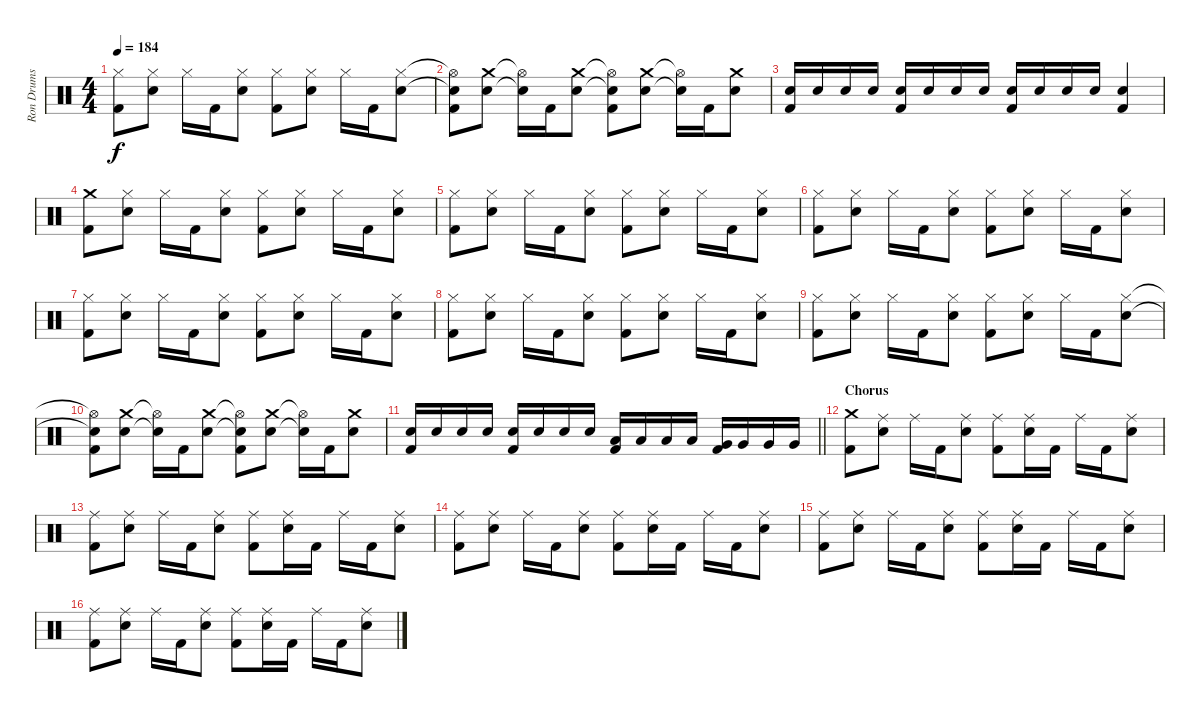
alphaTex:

\track ("Ron Drums and Percussion" "Ron Drums ") {instrument percussion}
\staff {score}
\articulation defaults
\ts (4 4)
\tempo 184
\clef neutral
\ks c
("Hi-Hat (closed)" "Kick (hit) 2").8{dy f} ("Hi-Hat (closed)" "Electric Snare (hit)").8 "Hi-Hat (closed)".16 "Kick (hit) 2".16 ("Hi-Hat (closed)" "Electric Snare (hit)").8 ("Hi-Hat (closed)" "Kick (hit) 2").8 ("Hi-Hat (closed)" "Electric Snare (hit)").8 "Hi-Hat (closed)".16 "Kick (hit) 2".16 ("Hi-Hat (closed)" "Electric Snare (hit)").8 |
("Hi-Hat (open)"{t} "Snare (hit)"{t} "Kick (hit) 2").8 ("Crash medium (hit)" "Electric Snare (hit)").8 ("Hi-Hat (open)"{t} "Snare (hit)"{t}).16 "Kick (hit) 2".16 ("Crash medium (hit)" "Electric Snare (hit)").8 ("Hi-Hat (open)"{t} "Snare (hit)"{t} "Kick (hit) 2").8 ("Crash medium (hit)" "Electric Snare (hit)").8 ("Hi-Hat (open)"{t} "Snare (hit)"{t}).16 "Kick (hit) 2".16 ("Crash medium (hit)" "Electric Snare (hit)").8 |
("Electric Snare (hit)" "Kick (hit) 2").16 "Electric Snare (hit)".16 "Electric Snare (hit)".16 "Electric Snare (hit)".16 ("Electric Snare (hit)" "Kick (hit) 2").16 "Electric Snare (hit)".16 "Electric Snare (hit)".16 "Electric Snare (hit)".16 ("Electric Snare (hit)" "Kick (hit) 2").16 "Electric Snare (hit)".16 "Electric Snare (hit)".16 "Electric Snare (hit)".16 ("Electric Snare (hit)" "Kick (hit) 2").4 |
("Crash medium (hit)" "Kick (hit) 2").8 ("Hi-Hat (closed)" "Electric Snare (hit)").8 "Hi-Hat (closed)".16 "Kick (hit) 2".16 ("Hi-Hat (closed)" "Electric Snare (hit)").8 ("Hi-Hat (closed)" "Kick (hit) 2").8 ("Hi-Hat (closed)" "Electric Snare (hit)").8 "Hi-Hat (closed)".16 "Kick (hit) 2".16 ("Hi-Hat (closed)" "Electric Snare (hit)").8 |
("Hi-Hat (closed)" "Kick (hit) 2").8 ("Hi-Hat (closed)" "Electric Snare (hit)").8 "Hi-Hat (closed)".16 "Kick (hit) 2".16 ("Hi-Hat (closed)" "Electric Snare (hit)").8 ("Hi-Hat (closed)" "Kick (hit) 2").8 ("Hi-Hat (closed)" "Electric Snare (hit)").8 "Hi-Hat (closed)".16 "Kick (hit) 2".16 ("Hi-Hat (closed)" "Electric Snare (hit)").8 |
("Hi-Hat (closed)" "Kick (hit) 2").8 ("Hi-Hat (closed)" "Electric Snare (hit)").8 "Hi-Hat (closed)".16 "Kick (hit) 2".16 ("Hi-Hat (closed)" "Electric Snare (hit)").8 ("Hi-Hat (closed)" "Kick (hit) 2").8 ("Hi-Hat (closed)" "Electric Snare (hit)").8 "Hi-Hat (closed)".16 "Kick (hit) 2".16 ("Hi-Hat (closed)" "Electric Snare (hit)").8 |
("Hi-Hat (closed)" "Kick (hit) 2").8 ("Hi-Hat (closed)" "Electric Snare (hit)").8 "Hi-Hat (closed)".16 "Kick (hit) 2".16 ("Hi-Hat (closed)" "Electric Snare (hit)").8 ("Hi-Hat (closed)" "Kick (hit) 2").8 ("Hi-Hat (closed)" "Electric Snare (hit)").8 "Hi-Hat (closed)".16 "Kick (hit) 2".16 ("Hi-Hat (closed)" "Electric Snare (hit)").8 |
("Hi-Hat (closed)" "Kick (hit) 2").8 ("Hi-Hat (closed)" "Electric Snare (hit)").8 "Hi-Hat (closed)".16 "Kick (hit) 2".16 ("Hi-Hat (closed)" "Electric Snare (hit)").8 ("Hi-Hat (closed)" "Kick (hit) 2").8 ("Hi-Hat (closed)" "Electric Snare (hit)").8 "Hi-Hat (closed)".16 "Kick (hit) 2".16 ("Hi-Hat (closed)" "Electric Snare (hit)").8 |
("Hi-Hat (closed)" "Kick (hit) 2").8 ("Hi-Hat (closed)" "Electric Snare (hit)").8 "Hi-Hat (closed)".16 "Kick (hit) 2".16 ("Hi-Hat (closed)" "Electric Snare (hit)").8 ("Hi-Hat (closed)" "Kick (hit) 2").8 ("Hi-Hat (closed)" "Electric Snare (hit)").8 "Hi-Hat (closed)".16 "Kick (hit) 2".16 ("Hi-Hat (closed)" "Electric Snare (hit)").8 |
("Hi-Hat (open)"{t} "Snare (hit)"{t} "Kick (hit) 2").8 ("Crash medium (hit)" "Electric Snare (hit)").8 ("Hi-Hat (open)"{t} "Snare (hit)"{t}).16 "Kick (hit) 2".16 ("Crash medium (hit)" "Electric Snare (hit)").8 ("Hi-Hat (open)"{t} "Snare (hit)"{t} "Kick (hit) 2").8 ("Crash medium (hit)" "Electric Snare (hit)").8 ("Hi-Hat (open)"{t} "Snare (hit)"{t}).16 "Kick (hit) 2".16 ("Crash medium (hit)" "Electric Snare (hit)").8 |
\barLineRight lightlight
("Electric Snare (hit)" "Kick (hit) 2").16 "Electric Snare (hit)".16 "Electric Snare (hit)".16 "Electric Snare (hit)".16 ("Electric Snare (hit)" "Kick (hit) 2").16 "Electric Snare (hit)".16 "Electric Snare (hit)".16 "Electric Snare (hit)".16 ("Low Tom (hit)" "Kick (hit) 2").16 "Low Tom (hit)".16 "Low Tom (hit)".16 "Low Tom (hit)".16 ("Very Low Tom (hit)" "Kick (hit) 2").16 "Very Low Tom (hit)".16 "Very Low Tom (hit)".16 "Very Low Tom (hit)".16 |
\section ("" "Chorus")
("Crash medium (hit)" "Kick (hit) 2").8 ("Ride (middle)" "Electric Snare (hit)").8 "Ride (middle)".16 "Kick (hit) 2".16 ("Ride (middle)" "Electric Snare (hit)").8 ("Ride (middle)" "Kick (hit) 2").8 ("Ride (middle)" "Electric Snare (hit)").16 "Kick (hit) 2".16 "Ride (middle)".16 "Kick (hit) 2".16 ("Ride (middle)" "Electric Snare (hit)").8 |
("Ride (middle)" "Kick (hit) 2").8 ("Ride (middle)" "Electric Snare (hit)").8 "Ride (middle)".16 "Kick (hit) 2".16 ("Ride (middle)" "Electric Snare (hit)").8 ("Ride (middle)" "Kick (hit) 2").8 ("Ride (middle)" "Electric Snare (hit)").16 "Kick (hit) 2".16 "Ride (middle)".16 "Kick (hit) 2".16 ("Ride (middle)" "Electric Snare (hit)").8 |
("Ride (middle)" "Kick (hit) 2").8 ("Ride (middle)" "Electric Snare (hit)").8 "Ride (middle)".16 "Kick (hit) 2".16 ("Ride (middle)" "Electric Snare (hit)").8 ("Ride (middle)" "Kick (hit) 2").8 ("Ride (middle)" "Electric Snare (hit)").16 "Kick (hit) 2".16 "Ride (middle)".16 "Kick (hit) 2".16 ("Ride (middle)" "Electric Snare (hit)").8 |
("Ride (middle)" "Kick (hit) 2").8 ("Ride (middle)" "Electric Snare (hit)").8 "Ride (middle)".16 "Kick (hit) 2".16 ("Ride (middle)" "Electric Snare (hit)").8 ("Ride (middle)" "Kick (hit) 2").8 ("Ride (middle)" "Electric Snare (hit)").16 "Kick (hit) 2".16 "Ride (middle)".16 "Kick (hit) 2".16 ("Ride (middle)" "Electric Snare (hit)").8 |
("Ride (middle)" "Kick (hit) 2").8 ("Ride (middle)" "Electric Snare (hit)").8 "Ride (middle)".16 "Kick (hit) 2".16 ("Ride (middle)" "Electric Snare (hit)").8 ("Ride (middle)" "Kick (hit) 2").8 ("Ride (middle)" "Electric Snare (hit)").16 "Kick (hit) 2".16 "Ride (middle)".16 "Kick (hit) 2".16 ("Ride (middle)" "Electric Snare (hit)").8
